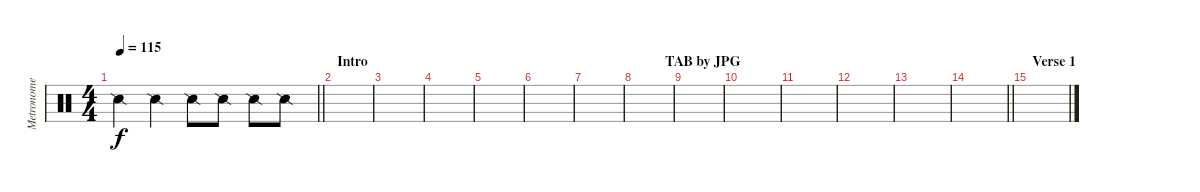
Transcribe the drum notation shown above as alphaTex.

\track ("Metronome" "Metronome") {instrument percussion}
\staff {score}
\articulation defaults
\ts (4 4)
\tempo 115
\clef neutral
\barLineRight lightlight
\ks c "Snare (side stick) 2".4{dy f} "Snare (side stick) 2".4 "Snare (side stick) 2".8 "Snare (side stick) 2".8 "Snare (side stick) 2".8 "Snare (side stick) 2".8
|
\section ("" "Intro                                                                                     TAB by JPG")
|
|
|
|
|
|
|
|
|
|
|
|
\barLineRight lightlight
|
\section ("" "Verse 1")
